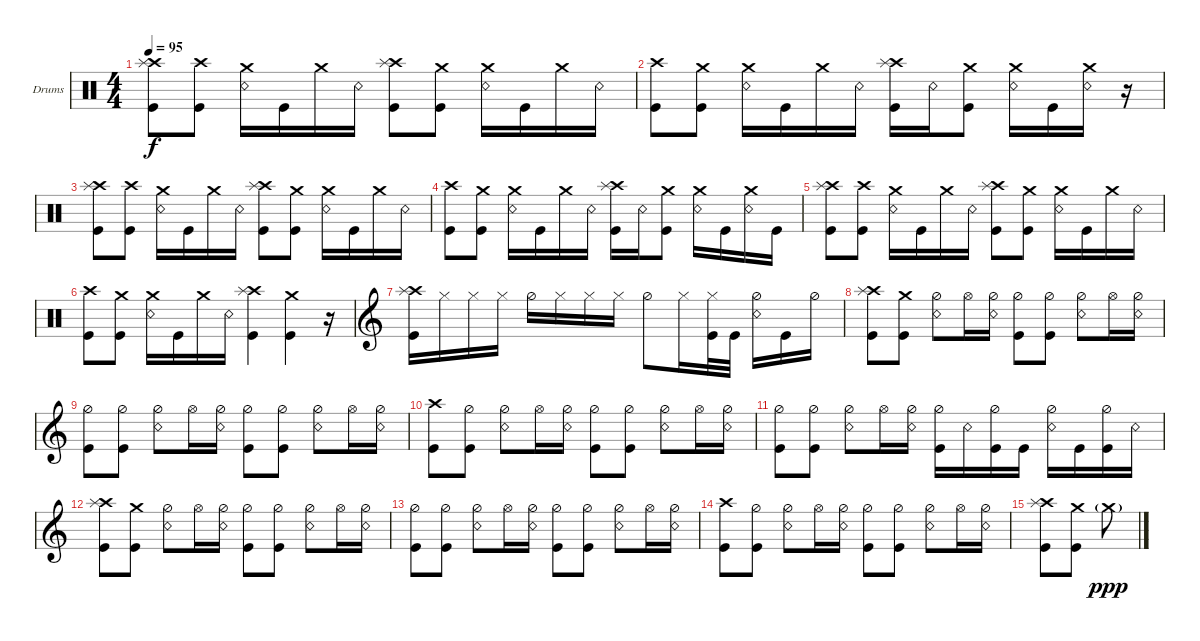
\defaultSystemsLayout 4
\bracketExtendMode groupsimilarinstruments
\firstSystemTrackNameOrientation horizontal
\otherSystemsTrackNameOrientation horizontal
\track ("Drumkit" "Drums") {instrument percussion}
\staff {score}
\articulation defaults
\ts (4 4)
\tempo 95
\clef neutral
\ks c
("Kick (hit)" "Crash high (hit)" "Splash (hit)").8{dy f} ("Kick (hit)" "Crash high (hit)").8 ("Snare (rim shot)" "Crash medium (hit)").16 "Kick (hit)".16 "Crash medium (hit)".16 "Snare (rim shot)".16 ("Kick (hit)" "Crash high (hit)" "Splash (hit)").8 ("Kick (hit)" "Crash medium (hit)").8 ("Snare (rim shot)" "Crash medium (hit)").16 "Kick (hit)".16 "Crash medium (hit)".16 "Snare (rim shot)".16 |
("Kick (hit)" "Crash high (hit)").8 ("Kick (hit)" "Crash medium (hit)").8 ("Snare (rim shot)" "Crash medium (hit)").16 "Kick (hit)".16 "Crash medium (hit)".16 "Snare (rim shot)".16 ("Kick (hit)" "Crash high (hit)" "Splash (hit)").16 "Snare (rim shot)".16 ("Kick (hit)" "Crash medium (hit)").8 ("Snare (rim shot)" "Crash medium (hit)").16 "Kick (hit)".16 ("Snare (rim shot)" "Crash medium (hit)").16 r.16 |
("Kick (hit)" "Crash high (hit)" "Splash (hit)").8 ("Kick (hit)" "Crash high (hit)").8 ("Snare (rim shot)" "Crash medium (hit)").16 "Kick (hit)".16 "Crash medium (hit)".16 "Snare (rim shot)".16 ("Kick (hit)" "Crash high (hit)" "Splash (hit)").8 ("Kick (hit)" "Crash medium (hit)").8 ("Snare (rim shot)" "Crash medium (hit)").16 "Kick (hit)".16 "Crash medium (hit)".16 "Snare (rim shot)".16 |
("Kick (hit)" "Crash high (hit)").8 ("Kick (hit)" "Crash medium (hit)").8 ("Snare (rim shot)" "Crash medium (hit)").16 "Kick (hit)".16 "Crash medium (hit)".16 "Snare (rim shot)".16 ("Kick (hit)" "Crash high (hit)" "Splash (hit)").16 "Snare (rim shot)".16 ("Kick (hit)" "Crash medium (hit)").8 ("Snare (rim shot)" "Crash medium (hit)").16 "Kick (hit)".16 ("Snare (rim shot)" "Crash medium (hit)").16 "Kick (hit)".16 |
("Kick (hit)" "Crash high (hit)" "Splash (hit)").8 ("Kick (hit)" "Crash high (hit)").8 ("Snare (rim shot)" "Crash medium (hit)").16 "Kick (hit)".16 "Crash medium (hit)".16 "Snare (rim shot)".16 ("Kick (hit)" "Crash high (hit)" "Splash (hit)").8 ("Kick (hit)" "Crash medium (hit)").8 ("Snare (rim shot)" "Crash medium (hit)").16 "Kick (hit)".16 "Crash medium (hit)".16 "Snare (rim shot)".16 |
("Kick (hit)" "Crash high (hit)").8 ("Kick (hit)" "Crash medium (hit)").8 ("Snare (rim shot)" "Crash medium (hit)").16 "Kick (hit)".16 "Crash medium (hit)".16 "Snare (rim shot)".16 ("Kick (hit)" "Crash high (hit)" "Splash (hit)").4 ("Kick (hit)" "Crash medium (hit)").4 r.16 |
\clef g2
("Kick (hit)" "Crash high (hit)" "Splash (hit)").16 "Hi-Hat (closed)".16 "Hi-Hat (closed)".16 "Hi-Hat (closed)".16 "Hi-Hat (half)".16 "Hi-Hat (closed)".16 "Hi-Hat (closed)".16 "Hi-Hat (closed)".16 "Hi-Hat (half)".8 "Hi-Hat (closed)".16 ("Kick (hit)" "Hi-Hat (closed)").32 "Kick (hit)".32 ("Snare (rim shot)" "Hi-Hat (half)").16 "Kick (hit)".16 "Hi-Hat (half)".16 |
("Kick (hit)" "Crash high (hit)" "Splash (hit)").8 ("Kick (hit)" "Crash medium (hit)").8 ("Hi-Hat (half)" "Snare (rim shot)").8 "Hi-Hat (open)".16 ("Snare (rim shot)" "Hi-Hat (half)").16 ("Hi-Hat (half)" "Kick (hit)").8 ("Hi-Hat (half)" "Kick (hit)").8 ("Hi-Hat (half)" "Snare (rim shot)").8 "Hi-Hat (open)".16 ("Snare (rim shot)" "Hi-Hat (half)").16 |
("Kick (hit)" "Hi-Hat (half)").8 ("Kick (hit)" "Hi-Hat (half)").8 ("Hi-Hat (half)" "Snare (rim shot)").8 "Hi-Hat (open)".16 ("Snare (rim shot)" "Hi-Hat (half)").16 ("Hi-Hat (half)" "Kick (hit)").8 ("Hi-Hat (half)" "Kick (hit)").8 ("Hi-Hat (half)" "Snare (rim shot)").8 "Hi-Hat (open)".16 ("Snare (rim shot)" "Hi-Hat (half)").16 |
("Kick (hit)" "Crash high (hit)").8 ("Kick (hit)" "Hi-Hat (half)").8 ("Hi-Hat (half)" "Snare (rim shot)").8 "Hi-Hat (open)".16 ("Snare (rim shot)" "Hi-Hat (half)").16 ("Hi-Hat (half)" "Kick (hit)").8 ("Hi-Hat (half)" "Kick (hit)").8 ("Hi-Hat (half)" "Snare (rim shot)").8 "Hi-Hat (open)".16 ("Snare (rim shot)" "Hi-Hat (half)").16 |
("Kick (hit)" "Hi-Hat (half)").8 ("Kick (hit)" "Hi-Hat (half)").8 ("Hi-Hat (half)" "Snare (rim shot)").8 "Hi-Hat (open)".16 ("Snare (rim shot)" "Hi-Hat (half)").16 ("Hi-Hat (half)" "Kick (hit)").16 "Snare (rim shot)".16 ("Hi-Hat (half)" "Kick (hit)").16 "Kick (hit)".16 ("Hi-Hat (half)" "Snare (rim shot)").16 "Kick (hit)".16 ("Hi-Hat (half)" "Kick (hit)").16 "Snare (rim shot)".16 |
("Kick (hit)" "Crash high (hit)" "Splash (hit)").8 ("Kick (hit)" "Crash medium (hit)").8 ("Hi-Hat (half)" "Snare (rim shot)").8 "Hi-Hat (open)".16 ("Snare (rim shot)" "Hi-Hat (half)").16 ("Hi-Hat (half)" "Kick (hit)").8 ("Hi-Hat (half)" "Kick (hit)").8 ("Hi-Hat (half)" "Snare (rim shot)").8 "Hi-Hat (open)".16 ("Snare (rim shot)" "Hi-Hat (half)").16 |
("Kick (hit)" "Hi-Hat (half)").8 ("Kick (hit)" "Hi-Hat (half)").8 ("Hi-Hat (half)" "Snare (rim shot)").8 "Hi-Hat (open)".16 ("Snare (rim shot)" "Hi-Hat (half)").16 ("Hi-Hat (half)" "Kick (hit)").8 ("Hi-Hat (half)" "Kick (hit)").8 ("Hi-Hat (half)" "Snare (rim shot)").8 "Hi-Hat (open)".16 ("Snare (rim shot)" "Hi-Hat (half)").16 |
("Kick (hit)" "Crash high (hit)").8 ("Kick (hit)" "Hi-Hat (half)").8 ("Hi-Hat (half)" "Snare (rim shot)").8 "Hi-Hat (open)".16 ("Snare (rim shot)" "Hi-Hat (half)").16 ("Hi-Hat (half)" "Kick (hit)").8 ("Hi-Hat (half)" "Kick (hit)").8 ("Hi-Hat (half)" "Snare (rim shot)").8 "Hi-Hat (open)".16 ("Snare (rim shot)" "Hi-Hat (half)").16 |
("Kick (hit)" "Crash high (hit)" "Splash (hit)").8 ("Kick (hit)" "Crash medium (hit)").8 "Crash medium (hit)"{g}.8{dy ppp}
